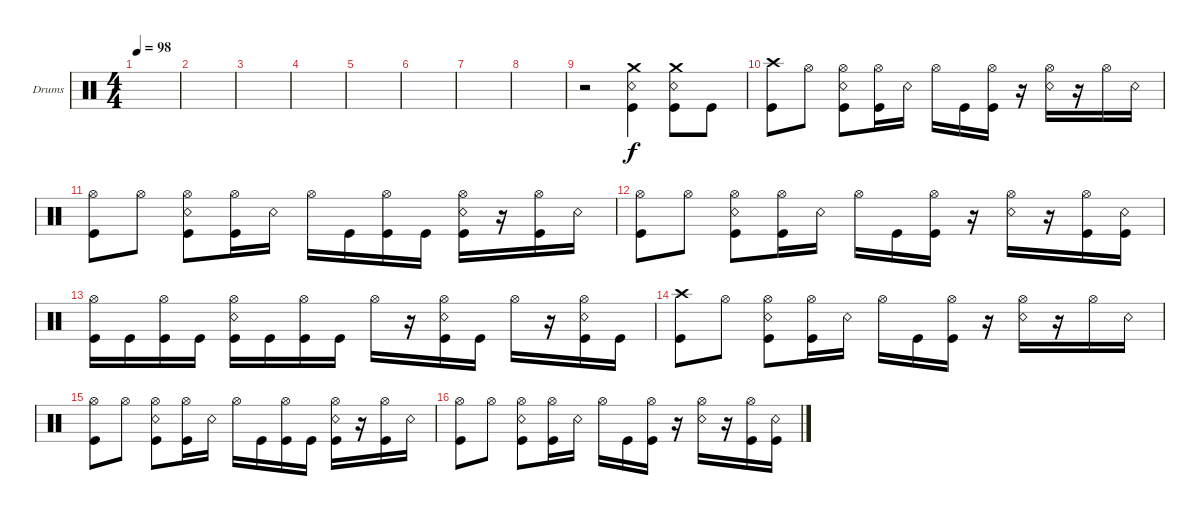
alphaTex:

\bracketExtendMode groupsimilarinstruments
\firstSystemTrackNameOrientation horizontal
\otherSystemsTrackNameOrientation horizontal
\track ("Drumkit" "Drums") {instrument percussion}
\staff {score}
\articulation defaults
\ts (4 4)
\tempo 98
\clef neutral
\ks c
|
|
|
|
|
|
|
|
r.2 ("Kick (hit)" "Snare (rim shot)" "Crash medium (hit)").4 ("Kick (hit)" "Snare (rim shot)" "Crash medium (hit)").8 "Kick (hit)".8 |
("Kick (hit)" "Crash high (hit)").8 "Hi-Hat (open)".8 ("Kick (hit)" "Hi-Hat (open)" "Snare (rim shot)").8 ("Kick (hit)" "Hi-Hat (open)").16 "Snare (rim shot)".16 "Hi-Hat (open)".16 "Kick (hit)".16 ("Kick (hit)" "Hi-Hat (open)").16 r.16 ("Snare (rim shot)" "Hi-Hat (open)").16 r.16 "Hi-Hat (open)".16 "Snare (rim shot)".16 |
("Kick (hit)" "Hi-Hat (open)").8 "Hi-Hat (open)".8 ("Kick (hit)" "Hi-Hat (open)" "Snare (rim shot)").8 ("Kick (hit)" "Hi-Hat (open)").16 "Snare (rim shot)".16 "Hi-Hat (open)".16 "Kick (hit)".16 ("Kick (hit)" "Hi-Hat (open)").16 "Kick (hit)".16 ("Snare (rim shot)" "Hi-Hat (open)" "Kick (hit)").16 r.16 ("Hi-Hat (open)" "Kick (hit)").16 "Snare (rim shot)".16 |
("Kick (hit)" "Hi-Hat (open)").8 "Hi-Hat (open)".8 ("Kick (hit)" "Hi-Hat (open)" "Snare (rim shot)").8 ("Kick (hit)" "Hi-Hat (open)").16 "Snare (rim shot)".16 "Hi-Hat (open)".16 "Kick (hit)".16 ("Kick (hit)" "Hi-Hat (open)").16 r.16 ("Snare (rim shot)" "Hi-Hat (open)").16 r.16 ("Hi-Hat (open)" "Kick (hit)").16 ("Snare (rim shot)" "Kick (hit)").16 |
("Kick (hit)" "Hi-Hat (open)").16 "Kick (hit)".16 ("Kick (hit)" "Hi-Hat (open)").16 "Kick (hit)".16 ("Kick (hit)" "Hi-Hat (open)" "Snare (rim shot)").16 "Kick (hit)".16 ("Kick (hit)" "Hi-Hat (open)").16 "Kick (hit)".16 "Hi-Hat (open)".16 r.16 ("Kick (hit)" "Hi-Hat (open)" "Snare (rim shot)").16 "Kick (hit)".16 "Hi-Hat (open)".16 r.16 ("Kick (hit)" "Hi-Hat (open)" "Snare (rim shot)").16 "Kick (hit)".16 |
("Kick (hit)" "Crash high (hit)").8 "Hi-Hat (open)".8 ("Kick (hit)" "Hi-Hat (open)" "Snare (rim shot)").8 ("Kick (hit)" "Hi-Hat (open)").16 "Snare (rim shot)".16 "Hi-Hat (open)".16 "Kick (hit)".16 ("Kick (hit)" "Hi-Hat (open)").16 r.16 ("Snare (rim shot)" "Hi-Hat (open)").16 r.16 "Hi-Hat (open)".16 "Snare (rim shot)".16 |
("Kick (hit)" "Hi-Hat (open)").8 "Hi-Hat (open)".8 ("Kick (hit)" "Hi-Hat (open)" "Snare (rim shot)").8 ("Kick (hit)" "Hi-Hat (open)").16 "Snare (rim shot)".16 "Hi-Hat (open)".16 "Kick (hit)".16 ("Kick (hit)" "Hi-Hat (open)").16 "Kick (hit)".16 ("Snare (rim shot)" "Hi-Hat (open)" "Kick (hit)").16 r.16 ("Hi-Hat (open)" "Kick (hit)").16 "Snare (rim shot)".16 |
("Kick (hit)" "Hi-Hat (open)").8 "Hi-Hat (open)".8 ("Kick (hit)" "Hi-Hat (open)" "Snare (rim shot)").8 ("Kick (hit)" "Hi-Hat (open)").16 "Snare (rim shot)".16 "Hi-Hat (open)".16 "Kick (hit)".16 ("Kick (hit)" "Hi-Hat (open)").16 r.16 ("Snare (rim shot)" "Hi-Hat (open)").16 r.16 ("Hi-Hat (open)" "Kick (hit)").16 ("Snare (rim shot)" "Kick (hit)").16
